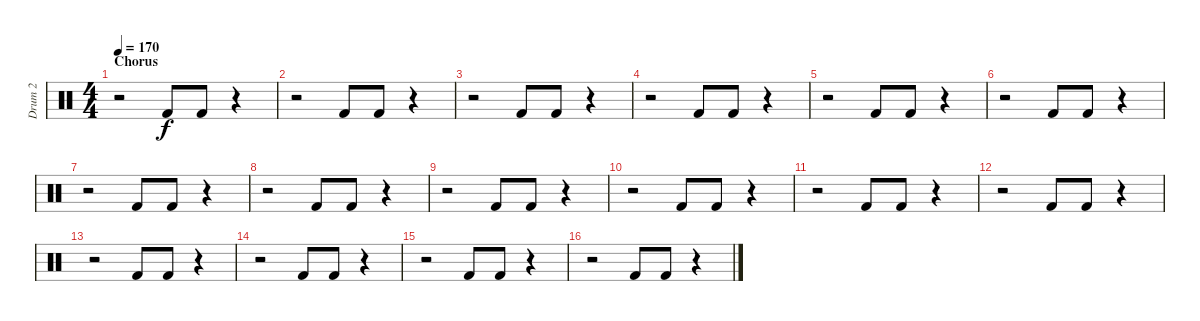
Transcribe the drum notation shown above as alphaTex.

\track ("Drum 2" "Drum 2") {instrument percussion}
\staff {score}
\articulation defaults
\ts (4 4)
\section ("" "Chorus")
\tempo 170
\clef neutral
\ks c
r.2{dy f} "Kick (hit) 2".8 "Kick (hit) 2".8 r.4 |
r.2 "Kick (hit) 2".8 "Kick (hit) 2".8 r.4 |
r.2 "Kick (hit) 2".8 "Kick (hit) 2".8 r.4 |
r.2 "Kick (hit) 2".8 "Kick (hit) 2".8 r.4 |
r.2 "Kick (hit) 2".8 "Kick (hit) 2".8 r.4 |
r.2 "Kick (hit) 2".8 "Kick (hit) 2".8 r.4 |
r.2 "Kick (hit) 2".8 "Kick (hit) 2".8 r.4 |
r.2 "Kick (hit) 2".8 "Kick (hit) 2".8 r.4 |
r.2 "Kick (hit) 2".8 "Kick (hit) 2".8 r.4 |
r.2 "Kick (hit) 2".8 "Kick (hit) 2".8 r.4 |
r.2 "Kick (hit) 2".8 "Kick (hit) 2".8 r.4 |
r.2 "Kick (hit) 2".8 "Kick (hit) 2".8 r.4 |
r.2 "Kick (hit) 2".8 "Kick (hit) 2".8 r.4 |
r.2 "Kick (hit) 2".8 "Kick (hit) 2".8 r.4 |
r.2 "Kick (hit) 2".8 "Kick (hit) 2".8 r.4 |
r.2 "Kick (hit) 2".8 "Kick (hit) 2".8 r.4
